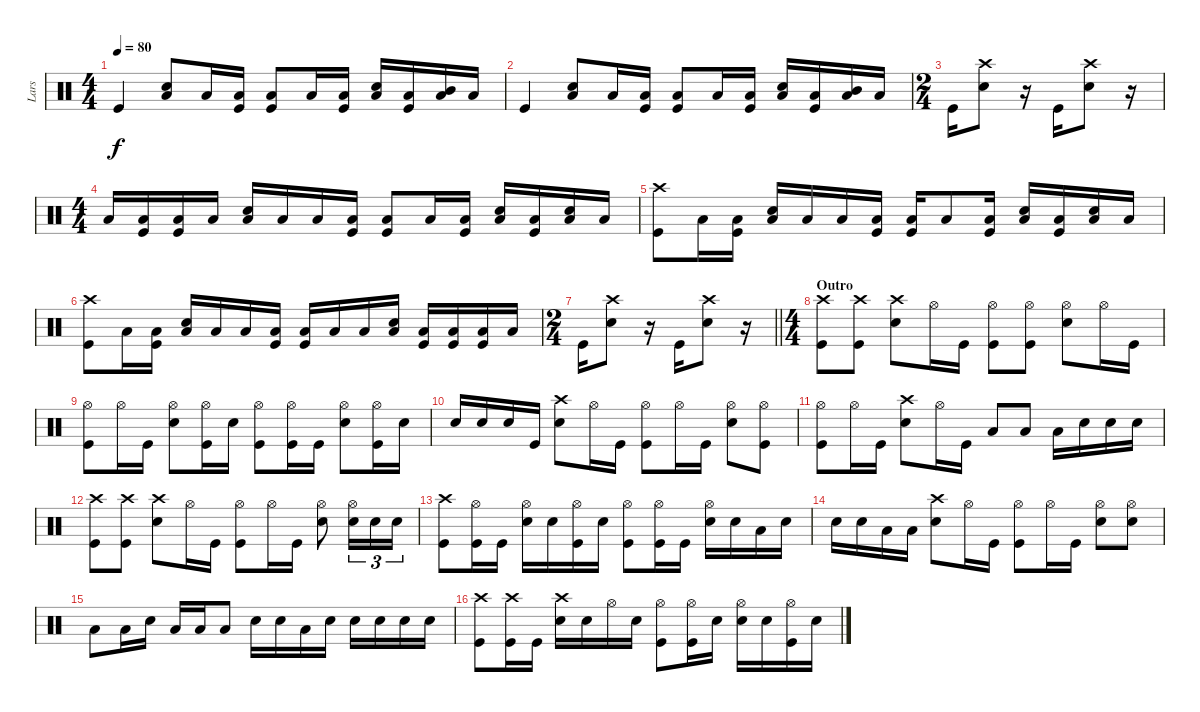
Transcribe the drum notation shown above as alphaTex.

\track ("Lars" "Lars") {instrument percussion}
\staff {score}
\articulation defaults
\ts (4 4)
\tempo 80
\clef neutral
\ks c "Kick (hit)".4{dy f}
("Snare (hit) 2" "Low Floor Tom (hit)").8 "Low Floor Tom (hit)".16 ("Low Floor Tom (hit)" "Kick (hit)").16 ("Low Floor Tom (hit)" "Kick (hit)").8 "Low Floor Tom (hit)".16 ("Low Floor Tom (hit)" "Kick (hit)").16 ("Snare (hit) 2" "Low Floor Tom (hit)").16 ("Low Floor Tom (hit)" "Kick (hit)").16 ("Mid Tom (hit)" "Low Floor Tom (hit)").16 "Low Floor Tom (hit)".16 |
"Kick (hit)".4 ("Snare (hit) 2" "Low Floor Tom (hit)").8 "Low Floor Tom (hit)".16 ("Low Floor Tom (hit)" "Kick (hit)").16 ("Low Floor Tom (hit)" "Kick (hit)").8 "Low Floor Tom (hit)".16 ("Low Floor Tom (hit)" "Kick (hit)").16 ("Snare (hit) 2" "Low Floor Tom (hit)").16 ("Low Floor Tom (hit)" "Kick (hit)").16 ("Mid Tom (hit)" "Low Floor Tom (hit)").16 "Low Floor Tom (hit)".16 |
\ts (2 4)
"Kick (hit)".16 ("Crash high (hit)" "Snare (hit) 2").8 r.16 "Kick (hit)".16 ("Crash high (hit)" "Snare (hit) 2").8 r.16 |
\ts (4 4)
"Low Floor Tom (hit)".16 ("Low Floor Tom (hit)" "Kick (hit)").16 ("Low Floor Tom (hit)" "Kick (hit)").16 "Low Floor Tom (hit)".16 ("Snare (hit) 2" "Low Floor Tom (hit)").16 "Low Floor Tom (hit)".16 "Low Floor Tom (hit)".16 ("Low Floor Tom (hit)" "Kick (hit)").16 ("Low Floor Tom (hit)" "Kick (hit)").8 "Low Floor Tom (hit)".16 ("Low Floor Tom (hit)" "Kick (hit)").16 ("Snare (hit) 2" "Low Floor Tom (hit)").16 ("Low Floor Tom (hit)" "Kick (hit)").16 ("Snare (hit) 2" "Low Floor Tom (hit)").16 "Low Floor Tom (hit)".16 |
("Crash high (hit)" "Kick (hit)").8 "Low Floor Tom (hit)".16 ("Low Floor Tom (hit)" "Kick (hit)").16 ("Snare (hit) 2" "Low Floor Tom (hit)").16 "Low Floor Tom (hit)".16 "Low Floor Tom (hit)".16 ("Low Floor Tom (hit)" "Kick (hit)").16 ("Low Floor Tom (hit)" "Kick (hit)").16 "Low Floor Tom (hit)".8 ("Low Floor Tom (hit)" "Kick (hit)").16 ("Snare (hit) 2" "Low Floor Tom (hit)").16 ("Low Floor Tom (hit)" "Kick (hit)").16 ("Snare (hit) 2" "Low Floor Tom (hit)").16 "Low Floor Tom (hit)".16 |
("Crash high (hit)" "Kick (hit)").8 "Low Floor Tom (hit)".16 ("Low Floor Tom (hit)" "Kick (hit)").16 ("Snare (hit) 2" "Low Floor Tom (hit)").16 "Low Floor Tom (hit)".16 "Low Floor Tom (hit)".16 ("Low Floor Tom (hit)" "Kick (hit)").16 ("Low Floor Tom (hit)" "Kick (hit)").16 "Low Floor Tom (hit)".16 "Low Floor Tom (hit)".16 ("Snare (hit) 2" "Low Floor Tom (hit)").16 ("Low Floor Tom (hit)" "Kick (hit)").16 ("Low Floor Tom (hit)" "Kick (hit)").16 ("Low Floor Tom (hit)" "Kick (hit)").16 "Low Floor Tom (hit)".16 |
\ts (2 4)
\barLineRight lightlight "Kick (hit)".16
("Crash high (hit)" "Snare (hit) 2").8 r.16 "Kick (hit)".16 ("Crash high (hit)" "Snare (hit) 2").8 r.16 |
\ts (4 4)
\section ("" "Outro")
("Crash high (hit)" "Kick (hit)").8 ("Crash high (hit)" "Kick (hit)").8 ("Crash high (hit)" "Snare (hit) 2").8 "Hi-Hat (open)".16 "Kick (hit)".16 ("Hi-Hat (open)" "Kick (hit)").8 ("Hi-Hat (open)" "Kick (hit)").8 ("Hi-Hat (open)" "Snare (hit) 2").8 "Hi-Hat (open)".16 "Kick (hit)".16 |
("Hi-Hat (open)" "Kick (hit)").8 "Hi-Hat (open)".16 "Kick (hit)".16 ("Hi-Hat (open)" "Snare (hit) 2").8 ("Hi-Hat (open)" "Kick (hit)").16 "Snare (hit) 2".16 ("Hi-Hat (open)" "Kick (hit)").8 ("Hi-Hat (open)" "Kick (hit)").16 "Kick (hit)".16 ("Hi-Hat (open)" "Snare (hit) 2").8 ("Hi-Hat (open)" "Kick (hit)").16 "Snare (hit) 2".16 |
"Snare (hit) 2".16 "Snare (hit) 2".16 "Snare (hit) 2".16 "Kick (hit)".16 ("Crash high (hit)" "Snare (hit) 2").8 "Hi-Hat (open)".16 "Kick (hit)".16 ("Hi-Hat (open)" "Kick (hit)").8 "Hi-Hat (open)".16 "Kick (hit)".16 ("Hi-Hat (open)" "Snare (hit) 2").8 ("Hi-Hat (open)" "Kick (hit)").8 |
("Hi-Hat (open)" "Kick (hit)").8 "Hi-Hat (open)".16 "Kick (hit)".16 ("Crash high (hit)" "Snare (hit) 2").8 "Hi-Hat (open)".16 "Kick (hit)".16 "Low Floor Tom (hit)".8 "Low Floor Tom (hit)".8 "Low Tom (hit)".16 "Snare (hit) 2".16 "Snare (hit) 2".16 "Snare (hit) 2".16 |
("Crash high (hit)" "Kick (hit)").8 ("Crash high (hit)" "Kick (hit)").8 ("Crash high (hit)" "Snare (hit) 2").8 "Hi-Hat (open)".16 "Kick (hit)".16 ("Hi-Hat (open)" "Kick (hit)").8 "Hi-Hat (open)".16 "Kick (hit)".16 ("Hi-Hat (open)" "Snare (hit) 2").8 ("Hi-Hat (open)" "Snare (hit) 2").16{tu (3 2)} "Snare (hit) 2".16{tu (3 2)} "Snare (hit) 2".16{tu (3 2)} |
("Crash high (hit)" "Kick (hit)").8 ("Hi-Hat (open)" "Kick (hit)").16 "Kick (hit)".16 ("Hi-Hat (open)" "Snare (hit) 2").16 "Snare (hit) 2".16 ("Hi-Hat (open)" "Kick (hit)").16 "Snare (hit) 2".16 ("Hi-Hat (open)" "Kick (hit)").8 ("Hi-Hat (open)" "Kick (hit)").16 "Kick (hit)".16 ("Hi-Hat (open)" "Snare (hit) 2").16 "Snare (hit) 2".16 "Low Tom (hit)".16 "Snare (hit) 2".16 |
"Snare (hit) 2".16 "Snare (hit) 2".16 "Low Tom (hit)".16 "Low Tom (hit)".16 ("Crash high (hit)" "Snare (hit) 2").8 "Hi-Hat (open)".16 "Kick (hit)".16 ("Hi-Hat (open)" "Kick (hit)").8 "Hi-Hat (open)".16 "Kick (hit)".16 ("Hi-Hat (open)" "Snare (hit) 2").8 ("Hi-Hat (open)" "Snare (hit) 2").8 |
"Low Floor Tom (hit)".8 "Low Floor Tom (hit)".16 "Snare (hit) 2".16 "Low Tom (hit)".16 "Low Tom (hit)".16 "Low Floor Tom (hit)".8 "Snare (hit) 2".16 "Snare (hit) 2".16 "Low Tom (hit)".16 "Snare (hit) 2".16 "Snare (hit) 2".16 "Snare (hit) 2".16 "Snare (hit) 2".16 "Snare (hit) 2".16 |
("Crash high (hit)" "Kick (hit)").8 ("Crash high (hit)" "Kick (hit)").16 "Kick (hit)".16 ("Crash high (hit)" "Snare (hit) 2").16 "Snare (hit) 2".16 "Hi-Hat (open)".16 "Snare (hit) 2".16 ("Hi-Hat (open)" "Kick (hit)").8 ("Hi-Hat (open)" "Kick (hit)").16 "Snare (hit) 2".16 ("Hi-Hat (open)" "Snare (hit) 2").16 "Snare (hit) 2".16 ("Hi-Hat (open)" "Kick (hit)").16 "Snare (hit) 2".16
